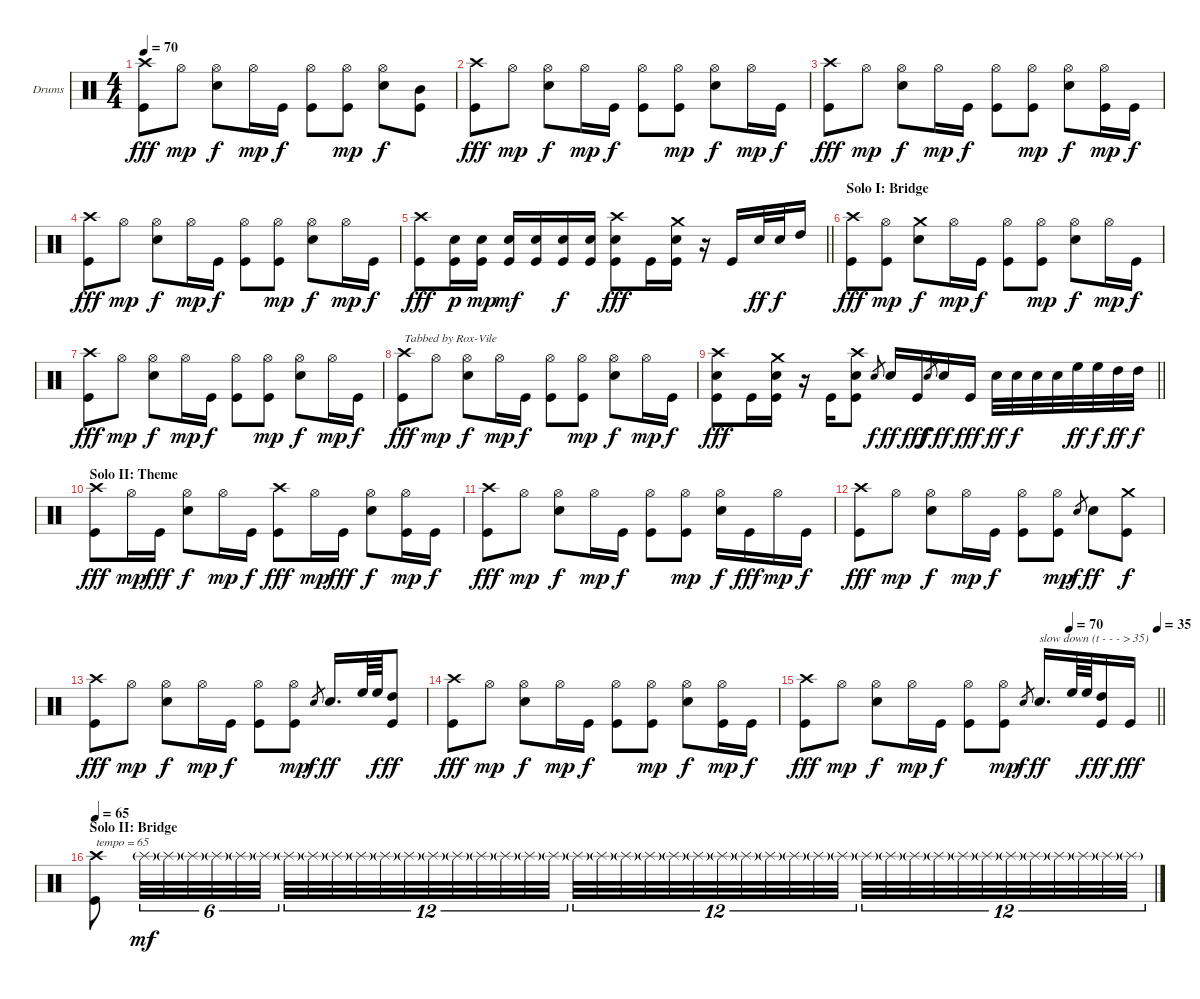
\bracketExtendMode groupsimilarinstruments
\firstSystemTrackNameOrientation horizontal
\otherSystemsTrackNameOrientation horizontal
\track ("5" "Drums") {instrument percussion}
\staff {score}
\articulation defaults
\ts (4 4)
\tempo 70
\clef neutral
\ks c
("Crash high (hit)" "Kick (hit)").8{dy fff} "Hi-Hat (open)".8{dy mp} ("Hi-Hat (open)" "Snare (hit) 2").8{dy f} "Hi-Hat (open)".16{dy mp} "Kick (hit)".16{dy f} ("Hi-Hat (open)" "Kick (hit)").8 ("Hi-Hat (open)" "Kick (hit)").8{dy mp} ("Hi-Hat (open)" "Snare (hit) 2").8{dy f} ("Mid Tom (hit)" "Kick (hit)").8 |
("Crash high (hit)" "Kick (hit)").8{dy fff} "Hi-Hat (open)".8{dy mp} ("Hi-Hat (open)" "Snare (hit) 2").8{dy f} "Hi-Hat (open)".16{dy mp} "Kick (hit)".16{dy f} ("Hi-Hat (open)" "Kick (hit)").8 ("Hi-Hat (open)" "Kick (hit)").8{dy mp} ("Hi-Hat (open)" "Snare (hit) 2").8{dy f} "Hi-Hat (open)".16{dy mp} "Kick (hit)".16{dy f} |
("Crash high (hit)" "Kick (hit)").8{dy fff} "Hi-Hat (open)".8{dy mp} ("Hi-Hat (open)" "Snare (hit) 2").8{dy f} "Hi-Hat (open)".16{dy mp} "Kick (hit)".16{dy f} ("Hi-Hat (open)" "Kick (hit)").8 ("Hi-Hat (open)" "Kick (hit)").8{dy mp} ("Hi-Hat (open)" "Snare (hit) 2").8{dy f} ("Hi-Hat (open)" "Kick (hit)").16{dy mp} "Kick (hit)".16{dy f} |
("Crash high (hit)" "Kick (hit)").8{dy fff} "Hi-Hat (open)".8{dy mp} ("Hi-Hat (open)" "Snare (hit) 2").8{dy f} "Hi-Hat (open)".16{dy mp} "Kick (hit)".16{dy f} ("Hi-Hat (open)" "Kick (hit)").8 ("Hi-Hat (open)" "Kick (hit)").8{dy mp} ("Hi-Hat (open)" "Snare (hit) 2").8{dy f} "Hi-Hat (open)".16{dy mp} "Kick (hit)".16{dy f} |
\barLineRight lightlight
("Crash high (hit)" "Kick (hit)").8{dy fff} ("Snare (hit) 2" "Kick (hit)").16{dy p} ("Snare (hit) 2" "Kick (hit)").16{dy mp} ("Snare (hit) 2" "Kick (hit)").16{dy mf} ("Snare (hit) 2" "Kick (hit)").16 ("Snare (hit) 2" "Kick (hit)").16{dy f} ("Snare (hit) 2" "Kick (hit)").16 ("Crash high (hit)" "Snare (hit) 2" "Kick (hit)").8{dy fff} "Kick (hit)".16 ("Crash medium (hit)" "Snare (hit) 2" "Kick (hit)").16 r.16 "Kick (hit)".16 "Snare (hit) 2".32{dy ff} "Snare (hit) 2".32{dy f} "High Tom (hit)".16 |
\section ("" "Solo I: Bridge")
("Crash high (hit)" "Kick (hit)").8{dy fff} ("Hi-Hat (open)" "Kick (hit)").8{dy mp} ("Crash medium (hit)" "Snare (hit) 2").8{dy f} "Hi-Hat (open)".16{dy mp} "Kick (hit)".16{dy f} ("Hi-Hat (open)" "Kick (hit)").8 ("Hi-Hat (open)" "Kick (hit)").8{dy mp} ("Hi-Hat (open)" "Snare (hit) 2").8{dy f} "Hi-Hat (open)".16{dy mp} "Kick (hit)".16{dy f} |
("Crash high (hit)" "Kick (hit)").8{dy fff} "Hi-Hat (open)".8{dy mp} ("Hi-Hat (open)" "Snare (hit) 2").8{dy f} "Hi-Hat (open)".16{dy mp} "Kick (hit)".16{dy f} ("Hi-Hat (open)" "Kick (hit)").8 ("Hi-Hat (open)" "Kick (hit)").8{dy mp} ("Hi-Hat (open)" "Snare (hit) 2").8{dy f} "Hi-Hat (open)".16{dy mp} "Kick (hit)".16{dy f} |
("Crash high (hit)" "Kick (hit)").8{txt "Tabbed by Rox-Vile" dy fff} "Hi-Hat (open)".8{dy mp} ("Hi-Hat (open)" "Snare (hit) 2").8{dy f} "Hi-Hat (open)".16{dy mp} "Kick (hit)".16{dy f} ("Hi-Hat (open)" "Kick (hit)").8 ("Hi-Hat (open)" "Kick (hit)").8{dy mp} ("Hi-Hat (open)" "Snare (hit) 2").8{dy f} "Hi-Hat (open)".16{dy mp} "Kick (hit)".16{dy f} |
\barLineRight lightlight
("Crash high (hit)" "Snare (hit) 2" "Kick (hit)").8{dy fff} "Kick (hit)".16 ("Crash medium (hit)" "Snare (hit) 2" "Kick (hit)").16 r.16 "Kick (hit)".16 ("Crash high (hit)" "Snare (hit) 2" "Kick (hit)").8 "Snare (hit) 2".8{gr dy f} "Snare (hit) 2".16{dy ff} "Kick (hit)".16{dy fff} "Snare (hit) 2".8{gr dy f} "Snare (hit) 2".16{dy ff} "Kick (hit)".16{dy fff} "Snare (hit) 2".32{dy ff} "Snare (hit) 2".32{dy f} "Snare (hit) 2".32 "Snare (hit) 2".32 "High Floor Tom (hit)".32{dy ff} "High Floor Tom (hit)".32{dy f} "High Tom (hit)".32{dy ff} "High Tom (hit)".32{dy f} |
\section ("" "Solo II: Theme")
("Crash high (hit)" "Kick (hit)").8{dy fff} "Hi-Hat (open)".16{dy mp} "Kick (hit)".16{dy fff} ("Hi-Hat (open)" "Snare (hit) 2").8{dy f} "Hi-Hat (open)".16{dy mp} "Kick (hit)".16{dy f} ("Crash high (hit)" "Kick (hit)").8{dy fff} "Hi-Hat (open)".16{dy mp} "Kick (hit)".16{dy fff} ("Hi-Hat (open)" "Snare (hit) 2").8{dy f} ("Hi-Hat (open)" "Kick (hit)").16{dy mp} "Kick (hit)".16{dy f} |
("Crash high (hit)" "Kick (hit)").8{dy fff} "Hi-Hat (open)".8{dy mp} ("Hi-Hat (open)" "Snare (hit) 2").8{dy f} "Hi-Hat (open)".16{dy mp} "Kick (hit)".16{dy f} ("Hi-Hat (open)" "Kick (hit)").8 ("Hi-Hat (open)" "Kick (hit)").8{dy mp} ("Hi-Hat (open)" "Snare (hit) 2").16{dy f} "Kick (hit)".16{dy fff} "Hi-Hat (open)".16{dy mp} "Kick (hit)".16{dy f} |
("Crash high (hit)" "Kick (hit)").8{dy fff} "Hi-Hat (open)".8{dy mp} ("Hi-Hat (open)" "Snare (hit) 2").8{dy f} "Hi-Hat (open)".16{dy mp} "Kick (hit)".16{dy f} ("Hi-Hat (open)" "Kick (hit)").8 ("Hi-Hat (open)" "Kick (hit)").8{dy mp} "Snare (hit) 2".8{gr dy f} "Snare (hit) 2".8{dy ff} ("Crash medium (hit)" "Kick (hit)").8{dy f} |
("Crash high (hit)" "Kick (hit)").8{dy fff} "Hi-Hat (open)".8{dy mp} ("Hi-Hat (open)" "Snare (hit) 2").8{dy f} "Hi-Hat (open)".16{dy mp} "Kick (hit)".16{dy f} ("Hi-Hat (open)" "Kick (hit)").8 ("Hi-Hat (open)" "Kick (hit)").8{dy mp} "Snare (hit) 2".8{gr dy f} "Snare (hit) 2".16{d dy ff} "High Floor Tom (hit)".64 "High Floor Tom (hit)".64{dy f} ("High Tom (hit)" "Kick (hit)").8{dy ff} |
("Crash high (hit)" "Kick (hit)").8{dy fff} "Hi-Hat (open)".8{dy mp} ("Hi-Hat (open)" "Snare (hit) 2").8{dy f} "Hi-Hat (open)".16{dy mp} "Kick (hit)".16{dy f} ("Hi-Hat (open)" "Kick (hit)").8 ("Hi-Hat (open)" "Kick (hit)").8{dy mp} ("Hi-Hat (open)" "Snare (hit) 2").8{dy f} ("Hi-Hat (open)" "Kick (hit)").16{dy mp} "Kick (hit)".16{dy f} |
\tempo (70 0.75)
\tempo (35 1)
\barLineRight lightlight
("Crash high (hit)" "Kick (hit)").8{dy fff} "Hi-Hat (open)".8{dy mp} ("Hi-Hat (open)" "Snare (hit) 2").8{dy f} "Hi-Hat (open)".16{dy mp} "Kick (hit)".16{dy f} ("Hi-Hat (open)" "Kick (hit)").8 ("Hi-Hat (open)" "Kick (hit)").8{dy mp} "Snare (hit) 2".8{gr dy f} "Snare (hit) 2".16{d txt "slow down (t - - - > 35)" dy ff} "High Floor Tom (hit)".64 "High Floor Tom (hit)".64{dy f} ("High Tom (hit)" "Kick (hit)").16{dy ff} "Kick (hit)".16{dy fff} |
\section ("" "Solo II: Bridge")
\tempo 65
("Crash high (hit)" "Kick (hit)").8{txt "tempo = 65"} "Splash (hit)"{g}.32{tu (6 4) dy mf} "Splash (hit)"{g}.32{tu (6 4)} "Splash (hit)"{g}.32{tu (6 4)} "Splash (hit)"{g}.32{tu (6 4)} "Splash (hit)"{g}.32{tu (6 4)} "Splash (hit)"{g}.32{tu (6 4)} "Splash (hit)"{g}.32{tu (12 8)} "Splash (hit)"{g}.32{tu (12 8)} "Splash (hit)"{g}.32{tu (12 8)} "Splash (hit)"{g}.32{tu (12 8)} "Splash (hit)"{g}.32{tu (12 8)} "Splash (hit)"{g}.32{tu (12 8)} "Splash (hit)"{g}.32{tu (12 8)} "Splash (hit)"{g}.32{tu (12 8)} "Splash (hit)"{g}.32{tu (12 8)} "Splash (hit)"{g}.32{tu (12 8)} "Splash (hit)"{g}.32{tu (12 8)} "Splash (hit)"{g}.32{tu (12 8)} "Splash (hit)"{g}.32{tu (12 8)} "Splash (hit)"{g}.32{tu (12 8)} "Splash (hit)"{g}.32{tu (12 8)} "Splash (hit)"{g}.32{tu (12 8)} "Splash (hit)"{g}.32{tu (12 8)} "Splash (hit)"{g}.32{tu (12 8)} "Splash (hit)"{g}.32{tu (12 8)} "Splash (hit)"{g}.32{tu (12 8)} "Splash (hit)"{g}.32{tu (12 8)} "Splash (hit)"{g}.32{tu (12 8)} "Splash (hit)"{g}.32{tu (12 8)} "Splash (hit)"{g}.32{tu (12 8)} "Splash (hit)"{g}.32{tu (12 8)} "Splash (hit)"{g}.32{tu (12 8)} "Splash (hit)"{g}.32{tu (12 8)} "Splash (hit)"{g}.32{tu (12 8)} "Splash (hit)"{g}.32{tu (12 8)} "Splash (hit)"{g}.32{tu (12 8)} "Splash (hit)"{g}.32{tu (12 8)} "Splash (hit)"{g}.32{tu (12 8)} "Splash (hit)"{g}.32{tu (12 8)} "Splash (hit)"{g}.32{tu (12 8)} "Splash (hit)"{g}.32{tu (12 8)} "Splash (hit)"{g}.32{tu (12 8)}
